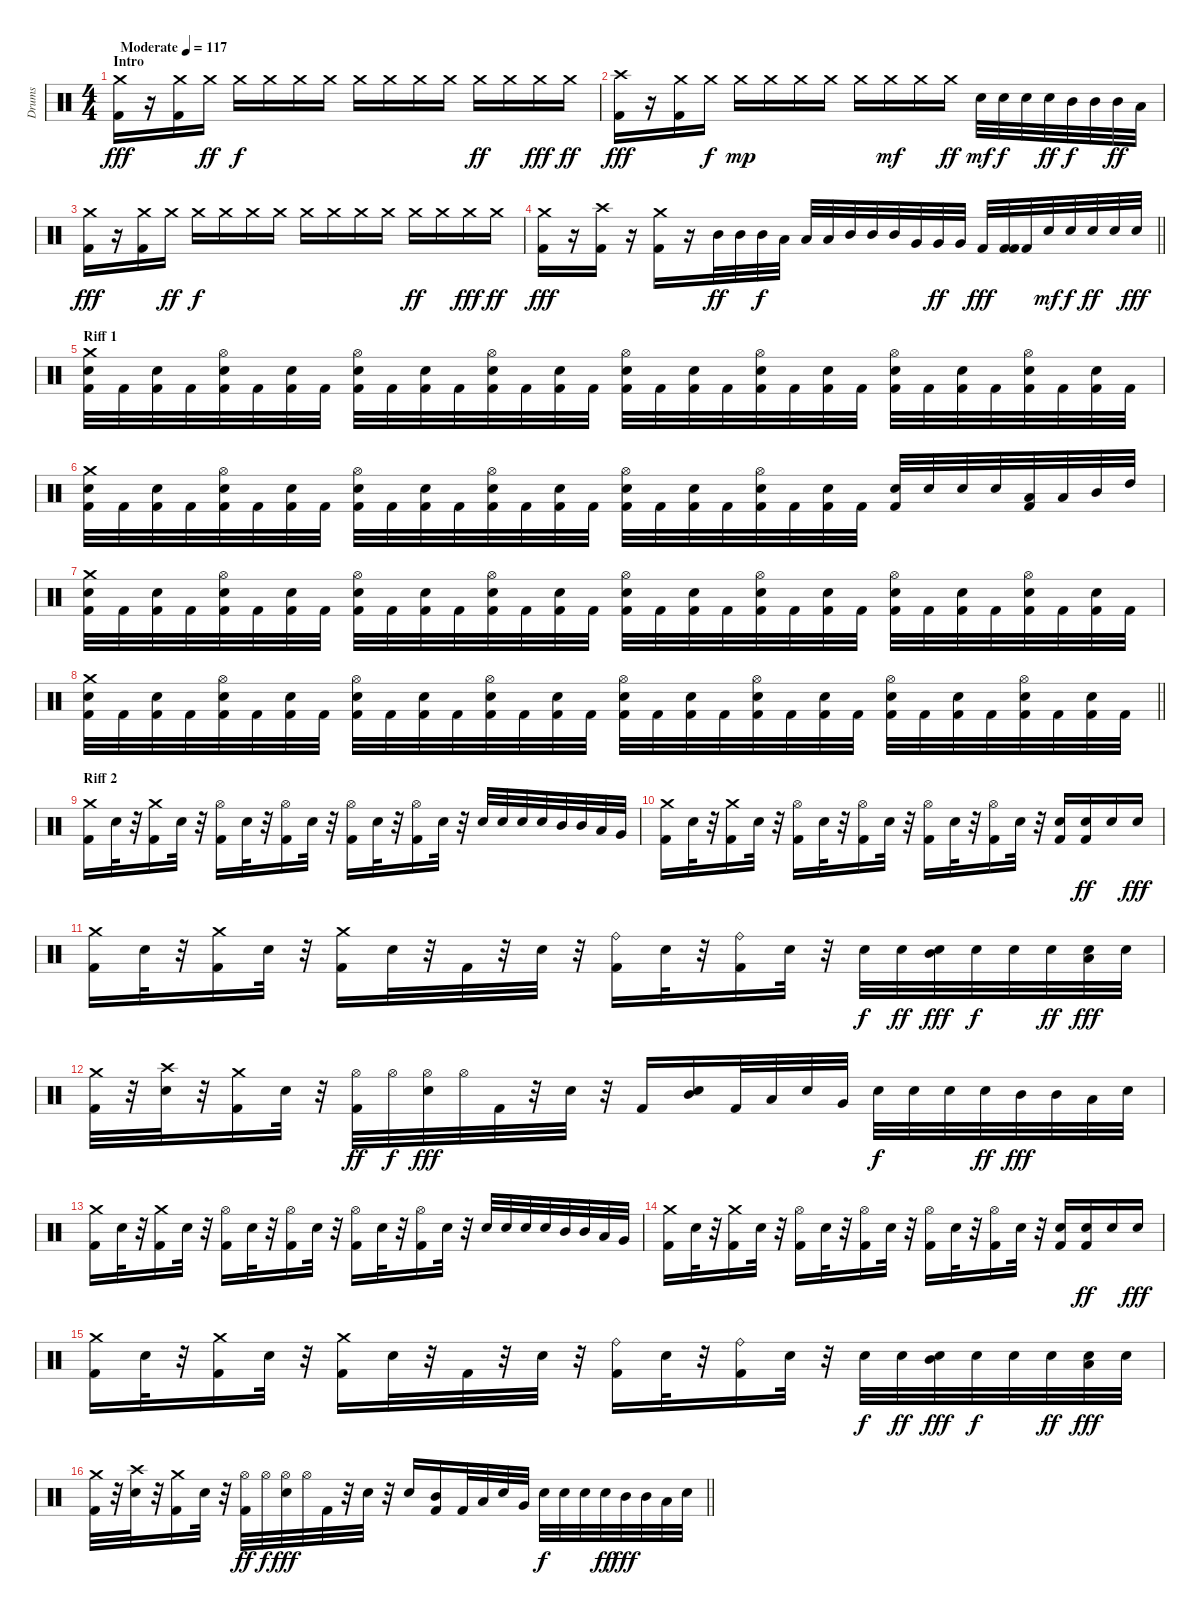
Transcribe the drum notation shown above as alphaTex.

\track ("Drums" "Drums") {instrument percussion}
\staff {score}
\articulation defaults
\ts (4 4)
\section ("" "Intro")
\tempo (117 "Moderate")
\clef neutral
\ks c
("Kick (hit) 2" "Crash medium (hit)").16{dy fff} r.16 ("Kick (hit) 2" "Crash medium (hit)").16 "Crash medium (hit)".16{dy ff} "Crash medium (hit)".16{dy f} "Crash medium (hit)".16 "Crash medium (hit)".16 "Crash medium (hit)".16 "Crash medium (hit)".16 "Crash medium (hit)".16 "Crash medium (hit)".16 "Crash medium (hit)".16 "Crash medium (hit)".16{dy ff} "Crash medium (hit)".16 "Crash medium (hit)".16{dy fff} "Crash medium (hit)".16{dy ff} |
("Kick (hit) 2" "Crash high (hit)").16{dy fff} r.16 ("Kick (hit) 2" "Crash medium (hit)").16 "Crash medium (hit)".16{dy f} "Crash medium (hit)".16{dy mp} "Crash medium (hit)".16 "Crash medium (hit)".16 "Crash medium (hit)".16 "Crash medium (hit)".16 "Crash medium (hit)".16{dy mf} "Crash medium (hit)".16 "Crash medium (hit)".16{dy ff} "Snare (hit) 2".32{dy mf} "Snare (hit) 2".32{dy f} "Snare (hit) 2".32 "Snare (hit) 2".32{dy ff} "Mid Tom (hit)".32{dy f} "Mid Tom (hit)".32 "Mid Tom (hit)".32{dy ff} "Low Tom (hit)".32 |
("Kick (hit) 2" "Crash medium (hit)").16{dy fff} r.16 ("Kick (hit) 2" "Crash medium (hit)").16 "Crash medium (hit)".16{dy ff} "Crash medium (hit)".16{dy f} "Crash medium (hit)".16 "Crash medium (hit)".16 "Crash medium (hit)".16 "Crash medium (hit)".16 "Crash medium (hit)".16 "Crash medium (hit)".16 "Crash medium (hit)".16 "Crash medium (hit)".16{dy ff} "Crash medium (hit)".16 "Crash medium (hit)".16{dy fff} "Crash medium (hit)".16{dy ff} |
\barLineRight lightlight
("Kick (hit) 2" "Crash medium (hit)").16{dy fff} r.16 ("Kick (hit) 2" "Crash high (hit)").16 r.16 ("Kick (hit) 2" "Crash medium (hit)").16 r.16 "Mid Tom (hit)".32{dy ff} "Mid Tom (hit)".32 "Mid Tom (hit)".32{dy f} "Low Tom (hit)".32 "Low Tom (hit)".32 "Low Tom (hit)".32 "Mid Tom (hit)".32 "Mid Tom (hit)".32 "Mid Tom (hit)".32 "Very Low Tom (hit)".32 "Very Low Tom (hit)".32{dy ff} "Very Low Tom (hit)".32 "Kick (hit) 2".32{dy fff} ("Kick (hit) 2" "Kick (hit) 2").32 "Kick (hit) 2".32 "Snare (hit) 2".32{dy mf} "Snare (hit) 2".32{dy f} "Snare (hit) 2".32{dy ff} "Snare (hit) 2".32 "Snare (hit) 2".32{dy fff} |
\section ("" "Riff 1")
("Kick (hit) 2" "Snare (hit) 2" "Crash medium (hit)").32 "Kick (hit) 2".32 ("Kick (hit) 2" "Snare (hit) 2").32 "Kick (hit) 2".32 ("Kick (hit) 2" "Snare (hit) 2" "Hi-Hat (open)").32 "Kick (hit) 2".32 ("Kick (hit) 2" "Snare (hit) 2").32 "Kick (hit) 2".32 ("Kick (hit) 2" "Snare (hit) 2" "Hi-Hat (open)").32 "Kick (hit) 2".32 ("Kick (hit) 2" "Snare (hit) 2").32 "Kick (hit) 2".32 ("Kick (hit) 2" "Snare (hit) 2" "Hi-Hat (open)").32 "Kick (hit) 2".32 ("Kick (hit) 2" "Snare (hit) 2").32 "Kick (hit) 2".32 ("Kick (hit) 2" "Snare (hit) 2" "Hi-Hat (open)").32 "Kick (hit) 2".32 ("Kick (hit) 2" "Snare (hit) 2").32 "Kick (hit) 2".32 ("Kick (hit) 2" "Snare (hit) 2" "Hi-Hat (open)").32 "Kick (hit) 2".32 ("Kick (hit) 2" "Snare (hit) 2").32 "Kick (hit) 2".32 ("Kick (hit) 2" "Snare (hit) 2" "Hi-Hat (open)").32 "Kick (hit) 2".32 ("Kick (hit) 2" "Snare (hit) 2").32 "Kick (hit) 2".32 ("Kick (hit) 2" "Snare (hit) 2" "Hi-Hat (open)").32 "Kick (hit) 2".32 ("Kick (hit) 2" "Snare (hit) 2").32 "Kick (hit) 2".32 |
("Kick (hit) 2" "Snare (hit) 2" "Crash medium (hit)").32 "Kick (hit) 2".32 ("Kick (hit) 2" "Snare (hit) 2").32 "Kick (hit) 2".32 ("Kick (hit) 2" "Snare (hit) 2" "Hi-Hat (open)").32 "Kick (hit) 2".32 ("Kick (hit) 2" "Snare (hit) 2").32 "Kick (hit) 2".32 ("Kick (hit) 2" "Snare (hit) 2" "Hi-Hat (open)").32 "Kick (hit) 2".32 ("Kick (hit) 2" "Snare (hit) 2").32 "Kick (hit) 2".32 ("Kick (hit) 2" "Snare (hit) 2" "Hi-Hat (open)").32 "Kick (hit) 2".32 ("Kick (hit) 2" "Snare (hit) 2").32 "Kick (hit) 2".32 ("Kick (hit) 2" "Snare (hit) 2" "Hi-Hat (open)").32 "Kick (hit) 2".32 ("Kick (hit) 2" "Snare (hit) 2").32 "Kick (hit) 2".32 ("Kick (hit) 2" "Snare (hit) 2" "Hi-Hat (open)").32 "Kick (hit) 2".32 ("Kick (hit) 2" "Snare (hit) 2").32 "Kick (hit) 2".32 ("Kick (hit) 2" "Snare (hit) 2").32 "Snare (hit) 2".32 "Snare (hit) 2".32 "Snare (hit) 2".32 ("Kick (hit) 2" "Low Tom (hit)").32 "Low Tom (hit)".32 "Mid Tom (hit)".32 "High Tom (hit)".32 |
("Kick (hit) 2" "Snare (hit) 2" "Crash medium (hit)").32 "Kick (hit) 2".32 ("Kick (hit) 2" "Snare (hit) 2").32 "Kick (hit) 2".32 ("Kick (hit) 2" "Snare (hit) 2" "Hi-Hat (open)").32 "Kick (hit) 2".32 ("Kick (hit) 2" "Snare (hit) 2").32 "Kick (hit) 2".32 ("Kick (hit) 2" "Snare (hit) 2" "Hi-Hat (open)").32 "Kick (hit) 2".32 ("Kick (hit) 2" "Snare (hit) 2").32 "Kick (hit) 2".32 ("Kick (hit) 2" "Snare (hit) 2" "Hi-Hat (open)").32 "Kick (hit) 2".32 ("Kick (hit) 2" "Snare (hit) 2").32 "Kick (hit) 2".32 ("Kick (hit) 2" "Snare (hit) 2" "Hi-Hat (open)").32 "Kick (hit) 2".32 ("Kick (hit) 2" "Snare (hit) 2").32 "Kick (hit) 2".32 ("Kick (hit) 2" "Snare (hit) 2" "Hi-Hat (open)").32 "Kick (hit) 2".32 ("Kick (hit) 2" "Snare (hit) 2").32 "Kick (hit) 2".32 ("Kick (hit) 2" "Snare (hit) 2" "Hi-Hat (open)").32 "Kick (hit) 2".32 ("Kick (hit) 2" "Snare (hit) 2").32 "Kick (hit) 2".32 ("Kick (hit) 2" "Snare (hit) 2" "Hi-Hat (open)").32 "Kick (hit) 2".32 ("Kick (hit) 2" "Snare (hit) 2").32 "Kick (hit) 2".32 |
\barLineRight lightlight
("Kick (hit) 2" "Snare (hit) 2" "Crash medium (hit)").32 "Kick (hit) 2".32 ("Kick (hit) 2" "Snare (hit) 2").32 "Kick (hit) 2".32 ("Kick (hit) 2" "Snare (hit) 2" "Hi-Hat (open)").32 "Kick (hit) 2".32 ("Kick (hit) 2" "Snare (hit) 2").32 "Kick (hit) 2".32 ("Kick (hit) 2" "Snare (hit) 2" "Hi-Hat (open)").32 "Kick (hit) 2".32 ("Kick (hit) 2" "Snare (hit) 2").32 "Kick (hit) 2".32 ("Kick (hit) 2" "Snare (hit) 2" "Hi-Hat (open)").32 "Kick (hit) 2".32 ("Kick (hit) 2" "Snare (hit) 2").32 "Kick (hit) 2".32 ("Kick (hit) 2" "Snare (hit) 2" "Hi-Hat (open)").32 "Kick (hit) 2".32 ("Kick (hit) 2" "Snare (hit) 2").32 "Kick (hit) 2".32 ("Kick (hit) 2" "Snare (hit) 2" "Hi-Hat (open)").32 "Kick (hit) 2".32 ("Kick (hit) 2" "Snare (hit) 2").32 "Kick (hit) 2".32 ("Kick (hit) 2" "Snare (hit) 2" "Hi-Hat (open)").32 "Kick (hit) 2".32 ("Kick (hit) 2" "Snare (hit) 2").32 "Kick (hit) 2".32 ("Kick (hit) 2" "Snare (hit) 2" "Hi-Hat (open)").32 "Kick (hit) 2".32 ("Kick (hit) 2" "Snare (hit) 2").32 "Kick (hit) 2".32 |
\section ("" "Riff 2")
("Kick (hit) 2" "Crash medium (hit)").16 "Snare (hit) 2".32 r.32 ("Kick (hit) 2" "Crash medium (hit)").16 "Snare (hit) 2".32 r.32 ("Kick (hit) 2" "Hi-Hat (open)").16 "Snare (hit) 2".32 r.32 ("Kick (hit) 2" "Hi-Hat (open)").16 "Snare (hit) 2".32 r.32 ("Kick (hit) 2" "Hi-Hat (open)").16 "Snare (hit) 2".32 r.32 ("Kick (hit) 2" "Hi-Hat (open)").16 "Snare (hit) 2".32 r.32 "Snare (hit) 2".32 "Snare (hit) 2".32 "Snare (hit) 2".32 "Snare (hit) 2".32 "Mid Tom (hit)".32 "Mid Tom (hit)".32 "Low Tom (hit)".32 "Very Low Tom (hit)".32 |
("Kick (hit) 2" "Crash medium (hit)").16 "Snare (hit) 2".32 r.32 ("Kick (hit) 2" "Crash medium (hit)").16 "Snare (hit) 2".32 r.32 ("Kick (hit) 2" "Hi-Hat (open)").16 "Snare (hit) 2".32 r.32 ("Kick (hit) 2" "Hi-Hat (open)").16 "Snare (hit) 2".32 r.32 ("Kick (hit) 2" "Hi-Hat (open)").16 "Snare (hit) 2".32 r.32 ("Kick (hit) 2" "Hi-Hat (open)").16 "Snare (hit) 2".32 r.32 ("Kick (hit) 2" "Snare (hit) 2").16 ("Kick (hit) 2" "Snare (hit) 2").16{dy ff} "Snare (hit) 2".16 "Snare (hit) 2".16{dy fff} |
("Kick (hit) 2" "Crash medium (hit)").16 "Snare (hit) 2".32 r.32 ("Kick (hit) 2" "Crash medium (hit)").16 "Snare (hit) 2".32 r.32 ("Kick (hit) 2" "Crash medium (hit)").16 "Snare (hit) 2".32 r.32 "Kick (hit) 2".32 r.32 "Snare (hit) 2".32 r.32 ("Kick (hit) 2" "Ride (bell)").16 "Snare (hit) 2".32 r.32 ("Kick (hit) 2" "Ride (bell)").16 "Snare (hit) 2".32 r.32 "Snare (hit) 2".32{dy f} "Snare (hit) 2".32{dy ff} ("Snare (hit) 2" "Mid Tom (hit)").32{dy fff} "Snare (hit) 2".32{dy f} "Snare (hit) 2".32 "Snare (hit) 2".32{dy ff} ("Snare (hit) 2" "Low Tom (hit)").32{dy fff} "Snare (hit) 2".32 |
("Crash medium (hit)" "Kick (hit) 2").32 r.32 ("Crash high (hit)" "Snare (hit) 2").32 r.32 ("Crash medium (hit)" "Kick (hit) 2").16 "Snare (hit) 2".32 r.32 ("Hi-Hat (open)" "Kick (hit) 2").32{dy ff} "Hi-Hat (open)".32{dy f} ("Hi-Hat (open)" "Snare (hit) 2").32{dy fff} "Hi-Hat (open)".32 "Kick (hit) 2".32 r.32 "Snare (hit) 2".32 r.32 "Kick (hit) 2".16 ("Snare (hit) 2" "Mid Tom (hit)").16 "Kick (hit) 2".32 "Low Tom (hit)".32 "Snare (hit) 2".32 "Very Low Tom (hit)".32 "Snare (hit) 2".32{dy f} "Snare (hit) 2".32 "Snare (hit) 2".32 "Snare (hit) 2".32{dy ff} "Mid Tom (hit)".32{dy fff} "Mid Tom (hit)".32 "Low Tom (hit)".32 "Snare (hit) 2".32 |
("Kick (hit) 2" "Crash medium (hit)").16 "Snare (hit) 2".32 r.32 ("Kick (hit) 2" "Crash medium (hit)").16 "Snare (hit) 2".32 r.32 ("Kick (hit) 2" "Hi-Hat (open)").16 "Snare (hit) 2".32 r.32 ("Kick (hit) 2" "Hi-Hat (open)").16 "Snare (hit) 2".32 r.32 ("Kick (hit) 2" "Hi-Hat (open)").16 "Snare (hit) 2".32 r.32 ("Kick (hit) 2" "Hi-Hat (open)").16 "Snare (hit) 2".32 r.32 "Snare (hit) 2".32 "Snare (hit) 2".32 "Snare (hit) 2".32 "Snare (hit) 2".32 "Mid Tom (hit)".32 "Mid Tom (hit)".32 "Low Tom (hit)".32 "Very Low Tom (hit)".32 |
("Kick (hit) 2" "Crash medium (hit)").16 "Snare (hit) 2".32 r.32 ("Kick (hit) 2" "Crash medium (hit)").16 "Snare (hit) 2".32 r.32 ("Kick (hit) 2" "Hi-Hat (open)").16 "Snare (hit) 2".32 r.32 ("Kick (hit) 2" "Hi-Hat (open)").16 "Snare (hit) 2".32 r.32 ("Kick (hit) 2" "Hi-Hat (open)").16 "Snare (hit) 2".32 r.32 ("Kick (hit) 2" "Hi-Hat (open)").16 "Snare (hit) 2".32 r.32 ("Kick (hit) 2" "Snare (hit) 2").16 ("Kick (hit) 2" "Snare (hit) 2").16{dy ff} "Snare (hit) 2".16 "Snare (hit) 2".16{dy fff} |
("Kick (hit) 2" "Crash medium (hit)").16 "Snare (hit) 2".32 r.32 ("Kick (hit) 2" "Crash medium (hit)").16 "Snare (hit) 2".32 r.32 ("Kick (hit) 2" "Crash medium (hit)").16 "Snare (hit) 2".32 r.32 "Kick (hit) 2".32 r.32 "Snare (hit) 2".32 r.32 ("Kick (hit) 2" "Ride (bell)").16 "Snare (hit) 2".32 r.32 ("Kick (hit) 2" "Ride (bell)").16 "Snare (hit) 2".32 r.32 "Snare (hit) 2".32{dy f} "Snare (hit) 2".32{dy ff} ("Snare (hit) 2" "Mid Tom (hit)").32{dy fff} "Snare (hit) 2".32{dy f} "Snare (hit) 2".32 "Snare (hit) 2".32{dy ff} ("Snare (hit) 2" "Low Tom (hit)").32{dy fff} "Snare (hit) 2".32 |
\barLineRight lightlight
("Crash medium (hit)" "Kick (hit) 2").32 r.32 ("Crash high (hit)" "Snare (hit) 2").32 r.32 ("Crash medium (hit)" "Kick (hit) 2").16 "Snare (hit) 2".32 r.32 ("Hi-Hat (open)" "Kick (hit) 2").32{dy ff} "Hi-Hat (open)".32{dy f} ("Hi-Hat (open)" "Snare (hit) 2").32{dy fff} "Hi-Hat (open)".32 "Kick (hit) 2".32 r.32 "Snare (hit) 2".32 r.32 "Snare (hit) 2".16 ("Kick (hit) 2" "Mid Tom (hit)").16 "Kick (hit) 2".32 "Low Tom (hit)".32 "Snare (hit) 2".32 "Very Low Tom (hit)".32 "Snare (hit) 2".32{dy f} "Snare (hit) 2".32 "Snare (hit) 2".32 "Snare (hit) 2".32{dy ff} "Mid Tom (hit)".32{dy fff} "Mid Tom (hit)".32 "Low Tom (hit)".32 "Snare (hit) 2".32
